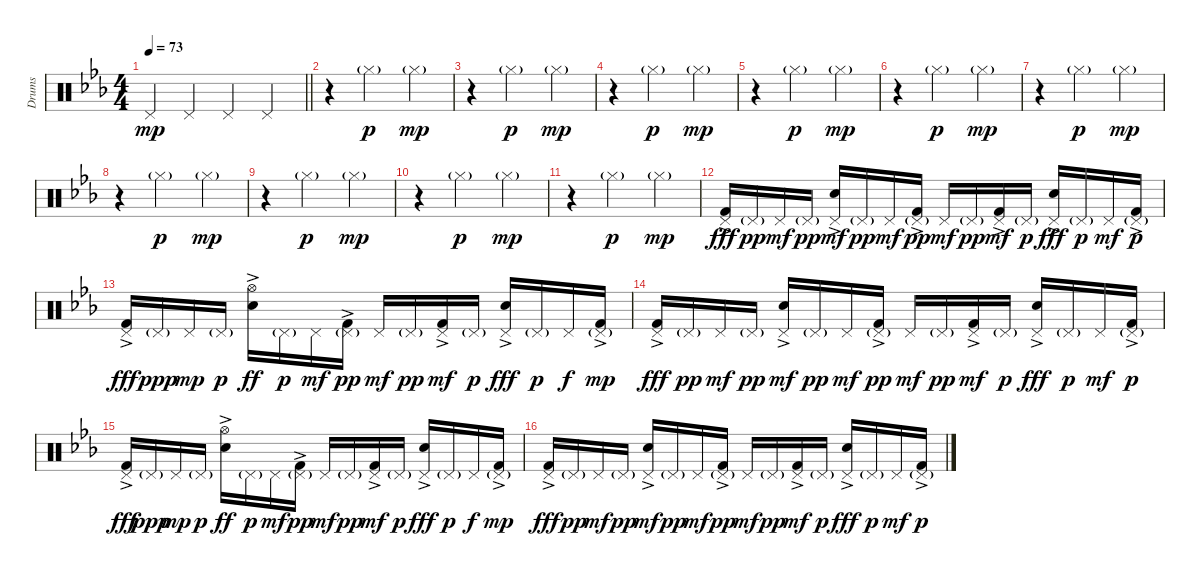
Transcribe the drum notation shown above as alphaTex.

\track ("Drums" "Drums") {instrument percussion}
\staff {score}
\articulation defaults
\ts (4 4)
\tempo 73
\clef neutral
\barLineRight lightlight
\ks eb "Pedal Hi-Hat (hit)".4{dy mp} "Pedal Hi-Hat (hit)".4 "Pedal Hi-Hat (hit)".4 "Pedal Hi-Hat (hit)".4
|
r.4 "Hi-Hat (closed)"{g}.2{dy p} "Hi-Hat (closed)"{g}.4{dy mp} |
r.4 "Hi-Hat (closed)"{g}.2{dy p} "Hi-Hat (closed)"{g}.4{dy mp} |
r.4 "Hi-Hat (closed)"{g}.2{dy p} "Hi-Hat (closed)"{g}.4{dy mp} |
r.4 "Hi-Hat (closed)"{g}.2{dy p} "Hi-Hat (closed)"{g}.4{dy mp} |
r.4 "Hi-Hat (closed)"{g}.2{dy p} "Hi-Hat (closed)"{g}.4{dy mp} |
r.4 "Hi-Hat (closed)"{g}.2{dy p} "Hi-Hat (closed)"{g}.4{dy mp} |
r.4 "Hi-Hat (closed)"{g}.2{dy p} "Hi-Hat (closed)"{g}.4{dy mp} |
r.4 "Hi-Hat (closed)"{g}.2{dy p} "Hi-Hat (closed)"{g}.4{dy mp} |
r.4 "Hi-Hat (closed)"{g}.2{dy p} "Hi-Hat (closed)"{g}.4{dy mp} |
r.4 "Hi-Hat (closed)"{g}.2{dy p} "Hi-Hat (closed)"{g}.4{dy mp} |
("Kick (hit) 2"{ac} "Pedal Hi-Hat (hit)").16{dy fff} "Pedal Hi-Hat (hit)"{g}.16{dy pp} "Pedal Hi-Hat (hit)".16{dy mf} "Pedal Hi-Hat (hit)"{g}.16{dy pp} ("Snare (hit) 2"{ac} "Pedal Hi-Hat (hit)").16{dy mf} "Pedal Hi-Hat (hit)"{g}.16{dy pp} "Pedal Hi-Hat (hit)".16{dy mf} ("Kick (hit) 2"{ac} "Pedal Hi-Hat (hit)"{g}).16{dy pp} "Pedal Hi-Hat (hit)".16{dy mf} "Pedal Hi-Hat (hit)"{g}.16{dy pp} ("Kick (hit) 2"{ac} "Pedal Hi-Hat (hit)").16{dy mf} "Pedal Hi-Hat (hit)"{g}.16{dy p} ("Snare (hit) 2"{ac} "Pedal Hi-Hat (hit)").16{dy fff} "Pedal Hi-Hat (hit)"{g}.16{dy p} "Pedal Hi-Hat (hit)".16{dy mf} ("Kick (hit) 2"{ac} "Pedal Hi-Hat (hit)"{g}).16{dy p} |
("Kick (hit) 2"{ac} "Pedal Hi-Hat (hit)").16{dy fff} "Pedal Hi-Hat (hit)"{g}.16{dy ppp} "Pedal Hi-Hat (hit)".16{dy mp} "Pedal Hi-Hat (hit)"{g}.16{dy p} ("Snare (hit) 2"{ac} "Hi-Hat (open)").16{dy ff} "Pedal Hi-Hat (hit)"{g}.16{dy p} "Pedal Hi-Hat (hit)".16{dy mf} ("Kick (hit) 2"{ac} "Pedal Hi-Hat (hit)"{g}).16{dy pp} "Pedal Hi-Hat (hit)".16{dy mf} "Pedal Hi-Hat (hit)"{g}.16{dy pp} ("Kick (hit) 2"{ac} "Pedal Hi-Hat (hit)").16{dy mf} "Pedal Hi-Hat (hit)"{g}.16{dy p} ("Snare (hit) 2"{ac} "Pedal Hi-Hat (hit)").16{dy fff} "Pedal Hi-Hat (hit)"{g}.16{dy p} "Pedal Hi-Hat (hit)".16{dy f} ("Kick (hit) 2"{ac} "Pedal Hi-Hat (hit)"{g}).16{dy mp} |
("Kick (hit) 2"{ac} "Pedal Hi-Hat (hit)").16{dy fff} "Pedal Hi-Hat (hit)"{g}.16{dy pp} "Pedal Hi-Hat (hit)".16{dy mf} "Pedal Hi-Hat (hit)"{g}.16{dy pp} ("Snare (hit) 2"{ac} "Pedal Hi-Hat (hit)").16{dy mf} "Pedal Hi-Hat (hit)"{g}.16{dy pp} "Pedal Hi-Hat (hit)".16{dy mf} ("Kick (hit) 2"{ac} "Pedal Hi-Hat (hit)"{g}).16{dy pp} "Pedal Hi-Hat (hit)".16{dy mf} "Pedal Hi-Hat (hit)"{g}.16{dy pp} ("Kick (hit) 2"{ac} "Pedal Hi-Hat (hit)").16{dy mf} "Pedal Hi-Hat (hit)"{g}.16{dy p} ("Snare (hit) 2"{ac} "Pedal Hi-Hat (hit)").16{dy fff} "Pedal Hi-Hat (hit)"{g}.16{dy p} "Pedal Hi-Hat (hit)".16{dy mf} ("Kick (hit) 2"{ac} "Pedal Hi-Hat (hit)"{g}).16{dy p} |
("Kick (hit) 2"{ac} "Pedal Hi-Hat (hit)").16{dy fff} "Pedal Hi-Hat (hit)"{g}.16{dy ppp} "Pedal Hi-Hat (hit)".16{dy mp} "Pedal Hi-Hat (hit)"{g}.16{dy p} ("Snare (hit) 2"{ac} "Hi-Hat (open)").16{dy ff} "Pedal Hi-Hat (hit)"{g}.16{dy p} "Pedal Hi-Hat (hit)".16{dy mf} ("Kick (hit) 2"{ac} "Pedal Hi-Hat (hit)"{g}).16{dy pp} "Pedal Hi-Hat (hit)".16{dy mf} "Pedal Hi-Hat (hit)"{g}.16{dy pp} ("Kick (hit) 2"{ac} "Pedal Hi-Hat (hit)").16{dy mf} "Pedal Hi-Hat (hit)"{g}.16{dy p} ("Snare (hit) 2"{ac} "Pedal Hi-Hat (hit)").16{dy fff} "Pedal Hi-Hat (hit)"{g}.16{dy p} "Pedal Hi-Hat (hit)".16{dy f} ("Kick (hit) 2"{ac} "Pedal Hi-Hat (hit)"{g}).16{dy mp} |
("Kick (hit) 2"{ac} "Pedal Hi-Hat (hit)").16{dy fff} "Pedal Hi-Hat (hit)"{g}.16{dy pp} "Pedal Hi-Hat (hit)".16{dy mf} "Pedal Hi-Hat (hit)"{g}.16{dy pp} ("Snare (hit) 2"{ac} "Pedal Hi-Hat (hit)").16{dy mf} "Pedal Hi-Hat (hit)"{g}.16{dy pp} "Pedal Hi-Hat (hit)".16{dy mf} ("Kick (hit) 2"{ac} "Pedal Hi-Hat (hit)"{g}).16{dy pp} "Pedal Hi-Hat (hit)".16{dy mf} "Pedal Hi-Hat (hit)"{g}.16{dy pp} ("Kick (hit) 2"{ac} "Pedal Hi-Hat (hit)").16{dy mf} "Pedal Hi-Hat (hit)"{g}.16{dy p} ("Snare (hit) 2"{ac} "Pedal Hi-Hat (hit)").16{dy fff} "Pedal Hi-Hat (hit)"{g}.16{dy p} "Pedal Hi-Hat (hit)".16{dy mf} ("Kick (hit) 2"{ac} "Pedal Hi-Hat (hit)"{g}).16{dy p}
